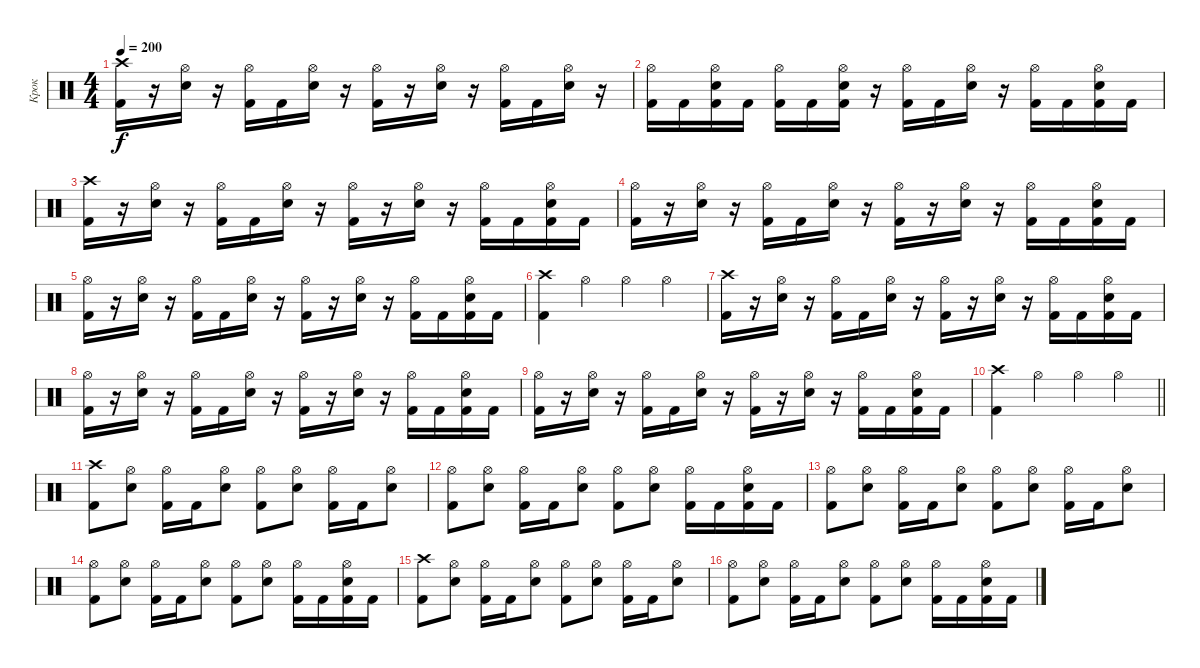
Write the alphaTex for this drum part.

\track ("Крок" "Крок") {instrument percussion}
\staff {score}
\articulation defaults
\ts (4 4)
\tempo 200
\clef neutral
\ks c
("Kick (hit) 2" "Crash high (hit)").16{dy f} r.16 ("Electric Snare (hit)" "Hi-Hat (open)").16 r.16 ("Kick (hit) 2" "Hi-Hat (open)").16 "Kick (hit) 2".16 ("Electric Snare (hit)" "Hi-Hat (open)").16 r.16 ("Kick (hit) 2" "Hi-Hat (open)").16 r.16 ("Electric Snare (hit)" "Hi-Hat (open)").16 r.16 ("Kick (hit) 2" "Hi-Hat (open)").16 "Kick (hit) 2".16 ("Electric Snare (hit)" "Hi-Hat (open)").16 r.16 |
("Kick (hit) 2" "Hi-Hat (open)").16 "Kick (hit) 2".16 ("Kick (hit) 2" "Electric Snare (hit)" "Hi-Hat (open)").16 "Kick (hit) 2".16 ("Kick (hit) 2" "Hi-Hat (open)").16 "Kick (hit) 2".16 ("Kick (hit) 2" "Electric Snare (hit)" "Hi-Hat (open)").16 r.16 ("Kick (hit) 2" "Hi-Hat (open)").16 "Kick (hit) 2".16 ("Electric Snare (hit)" "Hi-Hat (open)").16 r.16 ("Kick (hit) 2" "Hi-Hat (open)").16 "Kick (hit) 2".16 ("Kick (hit) 2" "Electric Snare (hit)" "Hi-Hat (open)").16 "Kick (hit) 2".16 |
("Kick (hit) 2" "Crash high (hit)").16 r.16 ("Electric Snare (hit)" "Hi-Hat (open)").16 r.16 ("Kick (hit) 2" "Hi-Hat (open)").16 "Kick (hit) 2".16 ("Electric Snare (hit)" "Hi-Hat (open)").16 r.16 ("Kick (hit) 2" "Hi-Hat (open)").16 r.16 ("Electric Snare (hit)" "Hi-Hat (open)").16 r.16 ("Kick (hit) 2" "Hi-Hat (open)").16 "Kick (hit) 2".16 ("Kick (hit) 2" "Electric Snare (hit)" "Hi-Hat (open)").16 "Kick (hit) 2".16 |
("Kick (hit) 2" "Hi-Hat (open)").16 r.16 ("Electric Snare (hit)" "Hi-Hat (open)").16 r.16 ("Kick (hit) 2" "Hi-Hat (open)").16 "Kick (hit) 2".16 ("Electric Snare (hit)" "Hi-Hat (open)").16 r.16 ("Kick (hit) 2" "Hi-Hat (open)").16 r.16 ("Electric Snare (hit)" "Hi-Hat (open)").16 r.16 ("Kick (hit) 2" "Hi-Hat (open)").16 "Kick (hit) 2".16 ("Kick (hit) 2" "Electric Snare (hit)" "Hi-Hat (open)").16 "Kick (hit) 2".16 |
("Kick (hit) 2" "Hi-Hat (open)").16 r.16 ("Electric Snare (hit)" "Hi-Hat (open)").16 r.16 ("Kick (hit) 2" "Hi-Hat (open)").16 "Kick (hit) 2".16 ("Electric Snare (hit)" "Hi-Hat (open)").16 r.16 ("Kick (hit) 2" "Hi-Hat (open)").16 r.16 ("Electric Snare (hit)" "Hi-Hat (open)").16 r.16 ("Kick (hit) 2" "Hi-Hat (open)").16 "Kick (hit) 2".16 ("Kick (hit) 2" "Electric Snare (hit)" "Hi-Hat (open)").16 "Kick (hit) 2".16 |
("Kick (hit) 2" "Crash high (hit)").4 "Hi-Hat (open)".4 "Hi-Hat (open)".4 "Hi-Hat (open)".4 |
("Kick (hit) 2" "Crash high (hit)").16 r.16 ("Electric Snare (hit)" "Hi-Hat (open)").16 r.16 ("Kick (hit) 2" "Hi-Hat (open)").16 "Kick (hit) 2".16 ("Electric Snare (hit)" "Hi-Hat (open)").16 r.16 ("Kick (hit) 2" "Hi-Hat (open)").16 r.16 ("Electric Snare (hit)" "Hi-Hat (open)").16 r.16 ("Kick (hit) 2" "Hi-Hat (open)").16 "Kick (hit) 2".16 ("Kick (hit) 2" "Electric Snare (hit)" "Hi-Hat (open)").16 "Kick (hit) 2".16 |
("Kick (hit) 2" "Hi-Hat (open)").16 r.16 ("Electric Snare (hit)" "Hi-Hat (open)").16 r.16 ("Kick (hit) 2" "Hi-Hat (open)").16 "Kick (hit) 2".16 ("Electric Snare (hit)" "Hi-Hat (open)").16 r.16 ("Kick (hit) 2" "Hi-Hat (open)").16 r.16 ("Electric Snare (hit)" "Hi-Hat (open)").16 r.16 ("Kick (hit) 2" "Hi-Hat (open)").16 "Kick (hit) 2".16 ("Kick (hit) 2" "Electric Snare (hit)" "Hi-Hat (open)").16 "Kick (hit) 2".16 |
("Kick (hit) 2" "Hi-Hat (open)").16 r.16 ("Electric Snare (hit)" "Hi-Hat (open)").16 r.16 ("Kick (hit) 2" "Hi-Hat (open)").16 "Kick (hit) 2".16 ("Electric Snare (hit)" "Hi-Hat (open)").16 r.16 ("Kick (hit) 2" "Hi-Hat (open)").16 r.16 ("Electric Snare (hit)" "Hi-Hat (open)").16 r.16 ("Kick (hit) 2" "Hi-Hat (open)").16 "Kick (hit) 2".16 ("Kick (hit) 2" "Electric Snare (hit)" "Hi-Hat (open)").16 "Kick (hit) 2".16 |
\barLineRight lightlight
("Kick (hit) 2" "Crash high (hit)").4 "Hi-Hat (open)".4 "Hi-Hat (open)".4 "Hi-Hat (open)".4 |
("Crash high (hit)" "Kick (hit) 2").8 ("Hi-Hat (open)" "Electric Snare (hit)").8 ("Hi-Hat (open)" "Kick (hit) 2").16 "Kick (hit) 2".16 ("Hi-Hat (open)" "Electric Snare (hit)").8 ("Hi-Hat (open)" "Kick (hit) 2").8 ("Hi-Hat (open)" "Electric Snare (hit)").8 ("Hi-Hat (open)" "Kick (hit) 2").16 "Kick (hit) 2".16 ("Hi-Hat (open)" "Electric Snare (hit)").8 |
("Hi-Hat (open)" "Kick (hit) 2").8 ("Hi-Hat (open)" "Electric Snare (hit)").8 ("Hi-Hat (open)" "Kick (hit) 2").16 "Kick (hit) 2".16 ("Hi-Hat (open)" "Electric Snare (hit)").8 ("Hi-Hat (open)" "Kick (hit) 2").8 ("Hi-Hat (open)" "Electric Snare (hit)").8 ("Hi-Hat (open)" "Kick (hit) 2").16 "Kick (hit) 2".16 ("Hi-Hat (open)" "Kick (hit) 2" "Electric Snare (hit)").16 "Kick (hit) 2".16 |
("Hi-Hat (open)" "Kick (hit) 2").8 ("Hi-Hat (open)" "Electric Snare (hit)").8 ("Hi-Hat (open)" "Kick (hit) 2").16 "Kick (hit) 2".16 ("Hi-Hat (open)" "Electric Snare (hit)").8 ("Hi-Hat (open)" "Kick (hit) 2").8 ("Hi-Hat (open)" "Electric Snare (hit)").8 ("Hi-Hat (open)" "Kick (hit) 2").16 "Kick (hit) 2".16 ("Hi-Hat (open)" "Electric Snare (hit)").8 |
("Hi-Hat (open)" "Kick (hit) 2").8 ("Hi-Hat (open)" "Electric Snare (hit)").8 ("Hi-Hat (open)" "Kick (hit) 2").16 "Kick (hit) 2".16 ("Hi-Hat (open)" "Electric Snare (hit)").8 ("Hi-Hat (open)" "Kick (hit) 2").8 ("Hi-Hat (open)" "Electric Snare (hit)").8 ("Hi-Hat (open)" "Kick (hit) 2").16 "Kick (hit) 2".16 ("Hi-Hat (open)" "Kick (hit) 2" "Electric Snare (hit)").16 "Kick (hit) 2".16 |
("Crash high (hit)" "Kick (hit) 2").8 ("Hi-Hat (open)" "Electric Snare (hit)").8 ("Hi-Hat (open)" "Kick (hit) 2").16 "Kick (hit) 2".16 ("Hi-Hat (open)" "Electric Snare (hit)").8 ("Hi-Hat (open)" "Kick (hit) 2").8 ("Hi-Hat (open)" "Electric Snare (hit)").8 ("Hi-Hat (open)" "Kick (hit) 2").16 "Kick (hit) 2".16 ("Hi-Hat (open)" "Electric Snare (hit)").8 |
("Hi-Hat (open)" "Kick (hit) 2").8 ("Hi-Hat (open)" "Electric Snare (hit)").8 ("Hi-Hat (open)" "Kick (hit) 2").16 "Kick (hit) 2".16 ("Hi-Hat (open)" "Electric Snare (hit)").8 ("Hi-Hat (open)" "Kick (hit) 2").8 ("Hi-Hat (open)" "Electric Snare (hit)").8 ("Hi-Hat (open)" "Kick (hit) 2").16 "Kick (hit) 2".16 ("Hi-Hat (open)" "Kick (hit) 2" "Electric Snare (hit)").16 "Kick (hit) 2".16
